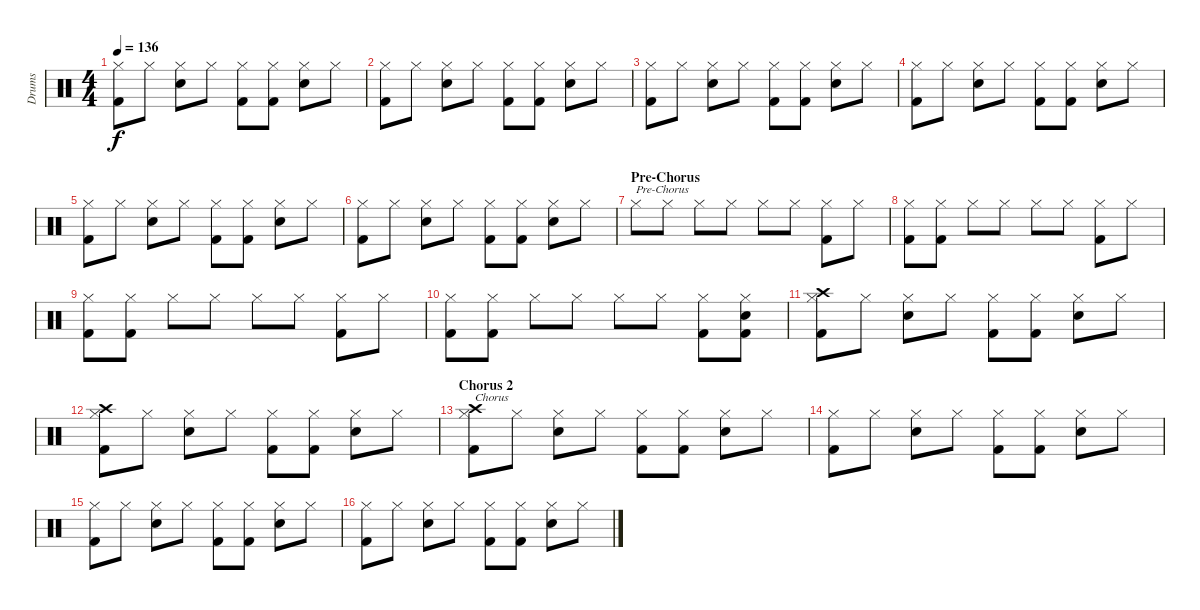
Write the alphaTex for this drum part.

\track ("Drums" "Drums") {instrument percussion}
\staff {score}
\articulation defaults
\ts (4 4)
\tempo 136
\clef neutral
\ks c
("Hi-Hat (closed)" "Kick (hit) 2").8{dy f} "Hi-Hat (closed)".8 ("Snare (hit) 2" "Hi-Hat (closed)").8 "Hi-Hat (closed)".8 ("Hi-Hat (closed)" "Kick (hit) 2").8 ("Hi-Hat (closed)" "Kick (hit) 2").8 ("Snare (hit) 2" "Hi-Hat (closed)").8 "Hi-Hat (closed)".8 |
("Hi-Hat (closed)" "Kick (hit) 2").8 "Hi-Hat (closed)".8 ("Snare (hit) 2" "Hi-Hat (closed)").8 "Hi-Hat (closed)".8 ("Hi-Hat (closed)" "Kick (hit) 2").8 ("Hi-Hat (closed)" "Kick (hit) 2").8 ("Snare (hit) 2" "Hi-Hat (closed)").8 "Hi-Hat (closed)".8 |
("Hi-Hat (closed)" "Kick (hit) 2").8 "Hi-Hat (closed)".8 ("Snare (hit) 2" "Hi-Hat (closed)").8 "Hi-Hat (closed)".8 ("Hi-Hat (closed)" "Kick (hit) 2").8 ("Hi-Hat (closed)" "Kick (hit) 2").8 ("Snare (hit) 2" "Hi-Hat (closed)").8 "Hi-Hat (closed)".8 |
("Hi-Hat (closed)" "Kick (hit) 2").8 "Hi-Hat (closed)".8 ("Snare (hit) 2" "Hi-Hat (closed)").8 "Hi-Hat (closed)".8 ("Hi-Hat (closed)" "Kick (hit) 2").8 ("Hi-Hat (closed)" "Kick (hit) 2").8 ("Snare (hit) 2" "Hi-Hat (closed)").8 "Hi-Hat (closed)".8 |
("Hi-Hat (closed)" "Kick (hit) 2").8 "Hi-Hat (closed)".8 ("Snare (hit) 2" "Hi-Hat (closed)").8 "Hi-Hat (closed)".8 ("Hi-Hat (closed)" "Kick (hit) 2").8 ("Hi-Hat (closed)" "Kick (hit) 2").8 ("Snare (hit) 2" "Hi-Hat (closed)").8 "Hi-Hat (closed)".8 |
("Hi-Hat (closed)" "Kick (hit) 2").8 "Hi-Hat (closed)".8 ("Snare (hit) 2" "Hi-Hat (closed)").8 "Hi-Hat (closed)".8 ("Hi-Hat (closed)" "Kick (hit) 2").8 ("Hi-Hat (closed)" "Kick (hit) 2").8 ("Snare (hit) 2" "Hi-Hat (closed)").8 "Hi-Hat (closed)".8 |
\section ("" "Pre-Chorus")
"Hi-Hat (closed)".8{txt "Pre-Chorus" volume 11} "Hi-Hat (closed)".8 "Hi-Hat (closed)".8 "Hi-Hat (closed)".8 "Hi-Hat (closed)".8 "Hi-Hat (closed)".8 ("Hi-Hat (closed)" "Kick (hit) 2").8 "Hi-Hat (closed)".8 |
("Hi-Hat (closed)" "Kick (hit) 2").8 ("Hi-Hat (closed)" "Kick (hit) 2").8 "Hi-Hat (closed)".8 "Hi-Hat (closed)".8 "Hi-Hat (closed)".8 "Hi-Hat (closed)".8 ("Hi-Hat (closed)" "Kick (hit) 2").8 "Hi-Hat (closed)".8 |
("Hi-Hat (closed)" "Kick (hit) 2").8 ("Hi-Hat (closed)" "Kick (hit) 2").8 "Hi-Hat (closed)".8 "Hi-Hat (closed)".8 "Hi-Hat (closed)".8 "Hi-Hat (closed)".8 ("Hi-Hat (closed)" "Kick (hit) 2").8 "Hi-Hat (closed)".8 |
("Hi-Hat (closed)" "Kick (hit) 2").8 ("Hi-Hat (closed)" "Kick (hit) 2").8 "Hi-Hat (closed)".8 "Hi-Hat (closed)".8 "Hi-Hat (closed)".8 "Hi-Hat (closed)".8 ("Hi-Hat (closed)" "Kick (hit) 2").8{volume 13} ("Snare (hit) 2" "Hi-Hat (closed)" "Kick (hit) 2").8 |
("Crash high (hit)" "Hi-Hat (closed)" "Kick (hit) 2").8 "Hi-Hat (closed)".8 ("Snare (hit) 2" "Hi-Hat (closed)").8 "Hi-Hat (closed)".8 ("Hi-Hat (closed)" "Kick (hit) 2").8 ("Hi-Hat (closed)" "Kick (hit) 2").8 ("Snare (hit) 2" "Hi-Hat (closed)").8 "Hi-Hat (closed)".8 |
("Crash high (hit)" "Hi-Hat (closed)" "Kick (hit) 2").8 "Hi-Hat (closed)".8 ("Snare (hit) 2" "Hi-Hat (closed)").8 "Hi-Hat (closed)".8 ("Hi-Hat (closed)" "Kick (hit) 2").8 ("Hi-Hat (closed)" "Kick (hit) 2").8 ("Snare (hit) 2" "Hi-Hat (closed)").8 "Hi-Hat (closed)".8 |
\section ("" "Chorus 2")
("Crash high (hit)" "Hi-Hat (closed)" "Kick (hit) 2").8{txt "Chorus"} "Hi-Hat (closed)".8 ("Snare (hit) 2" "Hi-Hat (closed)").8 "Hi-Hat (closed)".8 ("Hi-Hat (closed)" "Kick (hit) 2").8 ("Hi-Hat (closed)" "Kick (hit) 2").8 ("Snare (hit) 2" "Hi-Hat (closed)").8 "Hi-Hat (closed)".8 |
("Hi-Hat (closed)" "Kick (hit) 2").8 "Hi-Hat (closed)".8 ("Snare (hit) 2" "Hi-Hat (closed)").8 "Hi-Hat (closed)".8 ("Hi-Hat (closed)" "Kick (hit) 2").8 ("Hi-Hat (closed)" "Kick (hit) 2").8 ("Snare (hit) 2" "Hi-Hat (closed)").8 "Hi-Hat (closed)".8 |
("Hi-Hat (closed)" "Kick (hit) 2").8 "Hi-Hat (closed)".8 ("Snare (hit) 2" "Hi-Hat (closed)").8 "Hi-Hat (closed)".8 ("Hi-Hat (closed)" "Kick (hit) 2").8 ("Hi-Hat (closed)" "Kick (hit) 2").8 ("Snare (hit) 2" "Hi-Hat (closed)").8 "Hi-Hat (closed)".8 |
("Hi-Hat (closed)" "Kick (hit) 2").8 "Hi-Hat (closed)".8 ("Snare (hit) 2" "Hi-Hat (closed)").8 "Hi-Hat (closed)".8 ("Hi-Hat (closed)" "Kick (hit) 2").8 ("Hi-Hat (closed)" "Kick (hit) 2").8 ("Snare (hit) 2" "Hi-Hat (closed)").8 "Hi-Hat (closed)".8
